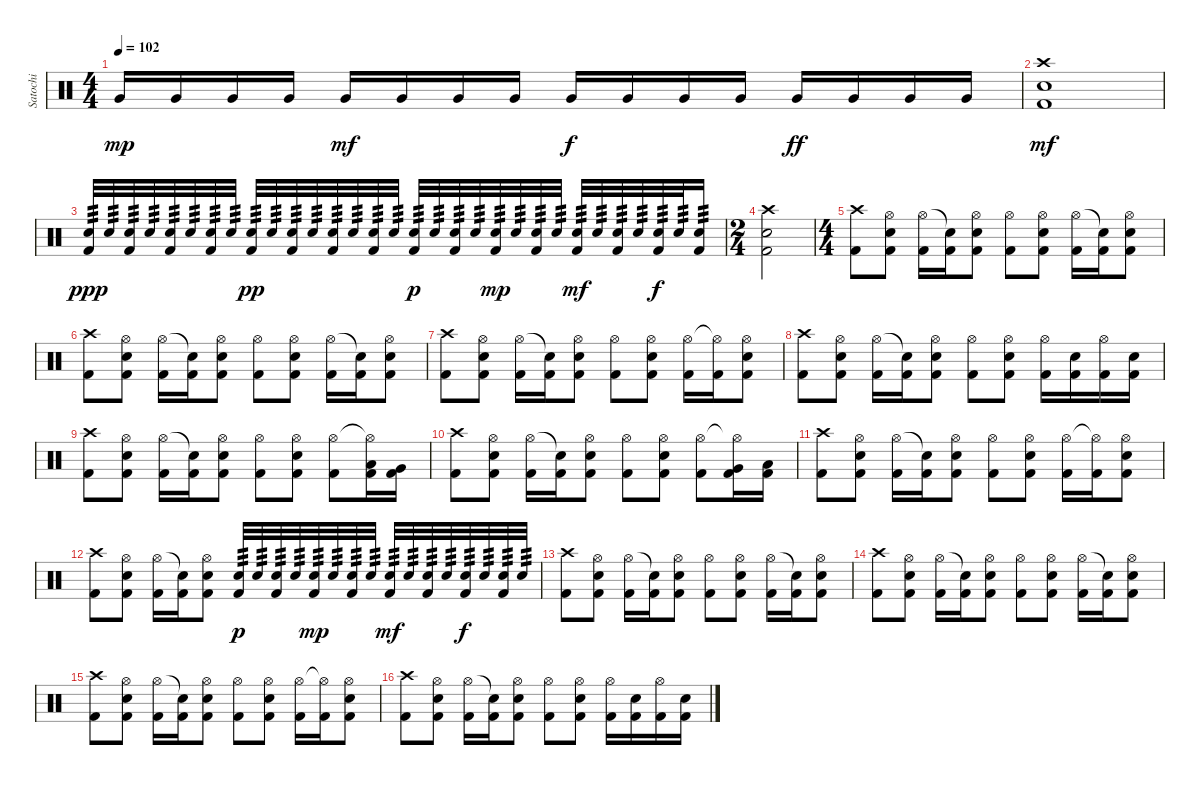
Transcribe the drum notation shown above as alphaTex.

\track ("Satochi" "Satochi") {instrument percussion}
\staff {score}
\articulation defaults
\ts (4 4)
\tempo 102
\clef neutral
\ks c "Very Low Tom (hit)".16{dy mp} "Very Low Tom (hit)".16 "Very Low Tom (hit)".16 "Very Low Tom (hit)".16 "Very Low Tom (hit)".16{dy mf} "Very Low Tom (hit)".16 "Very Low Tom (hit)".16 "Very Low Tom (hit)".16 "Very Low Tom (hit)".16{dy f} "Very Low Tom (hit)".16 "Very Low Tom (hit)".16 "Very Low Tom (hit)".16 "Very Low Tom (hit)".16{dy ff} "Very Low Tom (hit)".16 "Very Low Tom (hit)".16 "Very Low Tom (hit)".16
|
("Crash high (hit)" "Electric Snare (hit)" "Kick (hit) 2").1{dy mf} |
("Electric Snare (hit)" "Kick (hit) 2").32{tp 3 dy ppp} "Electric Snare (hit)".32{tp 3} ("Electric Snare (hit)" "Kick (hit) 2").32{tp 3} "Electric Snare (hit)".32{tp 3} ("Electric Snare (hit)" "Kick (hit) 2").32{tp 3} "Electric Snare (hit)".32{tp 3} ("Electric Snare (hit)" "Kick (hit) 2").32{tp 3} "Electric Snare (hit)".32{tp 3} ("Electric Snare (hit)" "Kick (hit) 2").32{tp 3 dy pp} "Electric Snare (hit)".32{tp 3} ("Electric Snare (hit)" "Kick (hit) 2").32{tp 3} "Electric Snare (hit)".32{tp 3} ("Electric Snare (hit)" "Kick (hit) 2").32{tp 3} "Electric Snare (hit)".32{tp 3} ("Electric Snare (hit)" "Kick (hit) 2").32{tp 3} "Electric Snare (hit)".32{tp 3} ("Electric Snare (hit)" "Kick (hit) 2").32{tp 3 dy p} "Electric Snare (hit)".32{tp 3} ("Electric Snare (hit)" "Kick (hit) 2").32{tp 3} "Electric Snare (hit)".32{tp 3} ("Electric Snare (hit)" "Kick (hit) 2").32{tp 3 dy mp} "Electric Snare (hit)".32{tp 3} ("Electric Snare (hit)" "Kick (hit) 2").32{tp 3} "Electric Snare (hit)".32{tp 3} ("Electric Snare (hit)" "Kick (hit) 2").32{tp 3 dy mf} "Electric Snare (hit)".32{tp 3} ("Electric Snare (hit)" "Kick (hit) 2").32{tp 3} "Electric Snare (hit)".32{tp 3} ("Electric Snare (hit)" "Kick (hit) 2").32{tp 3 dy f} "Electric Snare (hit)".32{tp 3} ("Electric Snare (hit)" "Kick (hit) 2").16{tp 3} |
\ts (2 4)
("Crash high (hit)" "Electric Snare (hit)" "Kick (hit) 2").2 |
\ts (4 4)
("Crash high (hit)" "Kick (hit) 2").8 ("Hi-Hat (open)" "Electric Snare (hit)" "Kick (hit) 2").8 ("Hi-Hat (open)" "Kick (hit) 2").16 ("Snare (hit)"{t} "Kick (hit) 2").16 ("Hi-Hat (open)" "Electric Snare (hit)" "Kick (hit) 2").8 ("Hi-Hat (open)" "Kick (hit) 2").8 ("Hi-Hat (open)" "Electric Snare (hit)" "Kick (hit) 2").8 ("Hi-Hat (open)" "Kick (hit) 2").16 ("Snare (hit)"{t} "Kick (hit) 2").16 ("Hi-Hat (open)" "Electric Snare (hit)" "Kick (hit) 2").8 |
("Crash high (hit)" "Kick (hit) 2").8 ("Hi-Hat (open)" "Electric Snare (hit)" "Kick (hit) 2").8 ("Hi-Hat (open)" "Kick (hit) 2").16 ("Snare (hit)"{t} "Kick (hit) 2").16 ("Hi-Hat (open)" "Electric Snare (hit)" "Kick (hit) 2").8 ("Hi-Hat (open)" "Kick (hit) 2").8 ("Hi-Hat (open)" "Electric Snare (hit)" "Kick (hit) 2").8 ("Hi-Hat (open)" "Kick (hit) 2").16 ("Snare (hit)"{t} "Kick (hit) 2").16 ("Hi-Hat (open)" "Electric Snare (hit)" "Kick (hit) 2").8 |
("Crash high (hit)" "Kick (hit) 2").8 ("Hi-Hat (open)" "Electric Snare (hit)" "Kick (hit) 2").8 ("Hi-Hat (open)" "Kick (hit) 2").16 ("Snare (hit)"{t} "Kick (hit) 2").16 ("Hi-Hat (open)" "Electric Snare (hit)" "Kick (hit) 2").8 ("Hi-Hat (open)" "Kick (hit) 2").8 ("Hi-Hat (open)" "Electric Snare (hit)" "Kick (hit) 2").8 ("Hi-Hat (open)" "Kick (hit) 2").16 ("Hi-Hat (open)"{t} "Kick (hit) 2").16 ("Hi-Hat (open)" "Electric Snare (hit)" "Kick (hit) 2").8 |
("Crash high (hit)" "Kick (hit) 2").8 ("Hi-Hat (open)" "Electric Snare (hit)" "Kick (hit) 2").8 ("Hi-Hat (open)" "Kick (hit) 2").16 ("Snare (hit)"{t} "Kick (hit) 2").16 ("Hi-Hat (open)" "Electric Snare (hit)" "Kick (hit) 2").8 ("Hi-Hat (open)" "Kick (hit) 2").8 ("Hi-Hat (open)" "Electric Snare (hit)" "Kick (hit) 2").8 ("Hi-Hat (open)" "Kick (hit) 2").16 ("Electric Snare (hit)" "Kick (hit) 2").16 ("Hi-Hat (open)" "Kick (hit) 2").16 ("Electric Snare (hit)" "Kick (hit) 2").16 |
("Crash high (hit)" "Kick (hit) 2").8 ("Hi-Hat (open)" "Electric Snare (hit)" "Kick (hit) 2").8 ("Hi-Hat (open)" "Kick (hit) 2").16 ("Snare (hit)"{t} "Kick (hit) 2").16 ("Hi-Hat (open)" "Electric Snare (hit)" "Kick (hit) 2").8 ("Hi-Hat (open)" "Kick (hit) 2").8 ("Hi-Hat (open)" "Electric Snare (hit)" "Kick (hit) 2").8 ("Hi-Hat (open)" "Kick (hit) 2").8 ("Hi-Hat (open)"{t} "Low Tom (hit)" "Kick (hit) 2").16 ("Very Low Tom (hit)" "Kick (hit) 2").16 |
("Crash high (hit)" "Kick (hit) 2").8 ("Hi-Hat (open)" "Electric Snare (hit)" "Kick (hit) 2").8 ("Hi-Hat (open)" "Kick (hit) 2").16 ("Snare (hit)"{t} "Kick (hit) 2").16 ("Hi-Hat (open)" "Electric Snare (hit)" "Kick (hit) 2").8 ("Hi-Hat (open)" "Kick (hit) 2").8 ("Hi-Hat (open)" "Electric Snare (hit)" "Kick (hit) 2").8 ("Hi-Hat (open)" "Kick (hit) 2").8 ("Hi-Hat (open)"{t} "Very Low Tom (hit)" "Kick (hit) 2").16 ("Low Tom (hit)" "Kick (hit) 2").16 |
("Crash high (hit)" "Kick (hit) 2").8 ("Hi-Hat (open)" "Electric Snare (hit)" "Kick (hit) 2").8 ("Hi-Hat (open)" "Kick (hit) 2").16 ("Snare (hit)"{t} "Kick (hit) 2").16 ("Hi-Hat (open)" "Electric Snare (hit)" "Kick (hit) 2").8 ("Hi-Hat (open)" "Kick (hit) 2").8 ("Hi-Hat (open)" "Electric Snare (hit)" "Kick (hit) 2").8 ("Hi-Hat (open)" "Kick (hit) 2").16 ("Hi-Hat (open)"{t} "Kick (hit) 2").16 ("Hi-Hat (open)" "Electric Snare (hit)" "Kick (hit) 2").8 |
("Crash high (hit)" "Kick (hit) 2").8 ("Hi-Hat (open)" "Electric Snare (hit)" "Kick (hit) 2").8 ("Hi-Hat (open)" "Kick (hit) 2").16 ("Snare (hit)"{t} "Kick (hit) 2").16 ("Hi-Hat (open)" "Electric Snare (hit)" "Kick (hit) 2").8 ("Electric Snare (hit)" "Kick (hit) 2").32{tp 3 dy p} "Electric Snare (hit)".32{tp 3} ("Electric Snare (hit)" "Kick (hit) 2").32{tp 3} "Electric Snare (hit)".32{tp 3} ("Electric Snare (hit)" "Kick (hit) 2").32{tp 3 dy mp} "Electric Snare (hit)".32{tp 3} ("Electric Snare (hit)" "Kick (hit) 2").32{tp 3} "Electric Snare (hit)".32{tp 3} ("Electric Snare (hit)" "Kick (hit) 2").32{tp 3 dy mf} "Electric Snare (hit)".32{tp 3} ("Electric Snare (hit)" "Kick (hit) 2").32{tp 3} "Electric Snare (hit)".32{tp 3} ("Electric Snare (hit)" "Kick (hit) 2").32{tp 3 dy f} "Electric Snare (hit)".32{tp 3} ("Electric Snare (hit)" "Kick (hit) 2").32{tp 3} "Electric Snare (hit)".32{tp 3} |
("Crash high (hit)" "Kick (hit) 2").8 ("Hi-Hat (open)" "Electric Snare (hit)" "Kick (hit) 2").8 ("Hi-Hat (open)" "Kick (hit) 2").16 ("Snare (hit)"{t} "Kick (hit) 2").16 ("Hi-Hat (open)" "Electric Snare (hit)" "Kick (hit) 2").8 ("Hi-Hat (open)" "Kick (hit) 2").8 ("Hi-Hat (open)" "Electric Snare (hit)" "Kick (hit) 2").8 ("Hi-Hat (open)" "Kick (hit) 2").16 ("Snare (hit)"{t} "Kick (hit) 2").16 ("Hi-Hat (open)" "Electric Snare (hit)" "Kick (hit) 2").8 |
("Crash high (hit)" "Kick (hit) 2").8 ("Hi-Hat (open)" "Electric Snare (hit)" "Kick (hit) 2").8 ("Hi-Hat (open)" "Kick (hit) 2").16 ("Snare (hit)"{t} "Kick (hit) 2").16 ("Hi-Hat (open)" "Electric Snare (hit)" "Kick (hit) 2").8 ("Hi-Hat (open)" "Kick (hit) 2").8 ("Hi-Hat (open)" "Electric Snare (hit)" "Kick (hit) 2").8 ("Hi-Hat (open)" "Kick (hit) 2").16 ("Snare (hit)"{t} "Kick (hit) 2").16 ("Hi-Hat (open)" "Electric Snare (hit)" "Kick (hit) 2").8 |
("Crash high (hit)" "Kick (hit) 2").8 ("Hi-Hat (open)" "Electric Snare (hit)" "Kick (hit) 2").8 ("Hi-Hat (open)" "Kick (hit) 2").16 ("Snare (hit)"{t} "Kick (hit) 2").16 ("Hi-Hat (open)" "Electric Snare (hit)" "Kick (hit) 2").8 ("Hi-Hat (open)" "Kick (hit) 2").8 ("Hi-Hat (open)" "Electric Snare (hit)" "Kick (hit) 2").8 ("Hi-Hat (open)" "Kick (hit) 2").16 ("Hi-Hat (open)"{t} "Kick (hit) 2").16 ("Hi-Hat (open)" "Electric Snare (hit)" "Kick (hit) 2").8 |
("Crash high (hit)" "Kick (hit) 2").8 ("Hi-Hat (open)" "Electric Snare (hit)" "Kick (hit) 2").8 ("Hi-Hat (open)" "Kick (hit) 2").16 ("Snare (hit)"{t} "Kick (hit) 2").16 ("Hi-Hat (open)" "Electric Snare (hit)" "Kick (hit) 2").8 ("Hi-Hat (open)" "Kick (hit) 2").8 ("Hi-Hat (open)" "Electric Snare (hit)" "Kick (hit) 2").8 ("Hi-Hat (open)" "Kick (hit) 2").16 ("Electric Snare (hit)" "Kick (hit) 2").16 ("Hi-Hat (open)" "Kick (hit) 2").16 ("Electric Snare (hit)" "Kick (hit) 2").16
